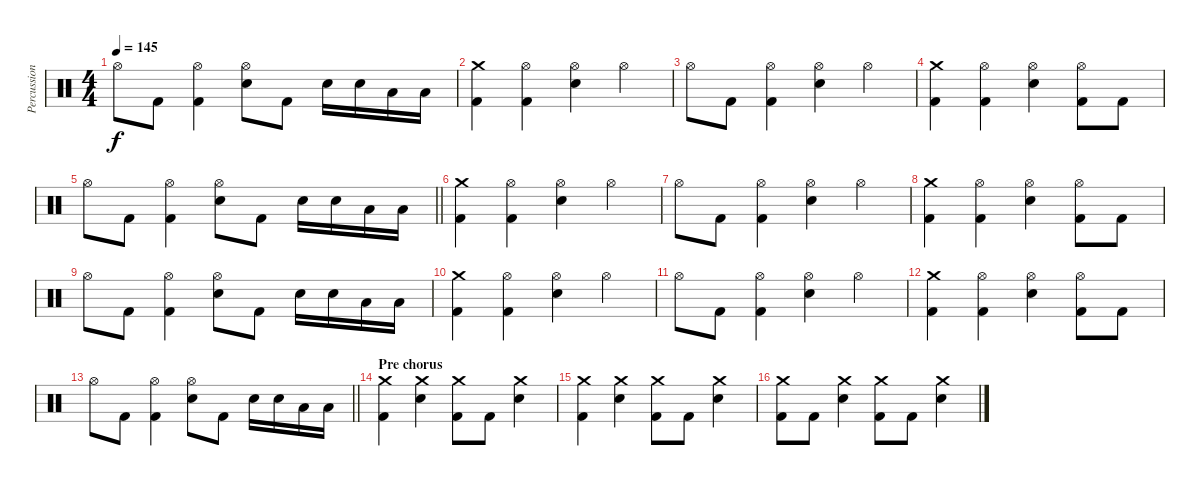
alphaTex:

\track ("Percussion" "Percussion") {instrument percussion}
\staff {score}
\articulation defaults
\ts (4 4)
\tempo 145
\clef neutral
\ks c "Hi-Hat (open)".8{dy f} "Kick (hit) 2".8
("Hi-Hat (open)" "Kick (hit) 2").4 ("Hi-Hat (open)" "Snare (hit) 2").8 "Kick (hit) 2".8 "Snare (hit) 2".16 "Snare (hit) 2".16 "Low Floor Tom (hit)".16 "Low Floor Tom (hit)".16 |
("Crash medium (hit)" "Kick (hit) 2").4 ("Hi-Hat (open)" "Kick (hit) 2").4 ("Hi-Hat (open)" "Snare (hit) 2").4 "Hi-Hat (open)".4 |
"Hi-Hat (open)".8 "Kick (hit) 2".8 ("Hi-Hat (open)" "Kick (hit) 2").4 ("Hi-Hat (open)" "Snare (hit) 2").4 "Hi-Hat (open)".4 |
("Crash medium (hit)" "Kick (hit) 2").4 ("Hi-Hat (open)" "Kick (hit) 2").4 ("Hi-Hat (open)" "Snare (hit) 2").4 ("Hi-Hat (open)" "Kick (hit) 2").8 "Kick (hit) 2".8 |
\barLineRight lightlight "Hi-Hat (open)".8 "Kick (hit) 2".8
("Hi-Hat (open)" "Kick (hit) 2").4 ("Hi-Hat (open)" "Snare (hit) 2").8 "Kick (hit) 2".8 "Snare (hit) 2".16 "Snare (hit) 2".16 "Low Floor Tom (hit)".16 "Low Floor Tom (hit)".16 |
("Crash medium (hit)" "Kick (hit) 2").4 ("Hi-Hat (open)" "Kick (hit) 2").4 ("Hi-Hat (open)" "Snare (hit) 2").4 "Hi-Hat (open)".4 |
"Hi-Hat (open)".8 "Kick (hit) 2".8 ("Hi-Hat (open)" "Kick (hit) 2").4 ("Hi-Hat (open)" "Snare (hit) 2").4 "Hi-Hat (open)".4 |
("Crash medium (hit)" "Kick (hit) 2").4 ("Hi-Hat (open)" "Kick (hit) 2").4 ("Hi-Hat (open)" "Snare (hit) 2").4 ("Hi-Hat (open)" "Kick (hit) 2").8 "Kick (hit) 2".8 |
"Hi-Hat (open)".8 "Kick (hit) 2".8 ("Hi-Hat (open)" "Kick (hit) 2").4 ("Hi-Hat (open)" "Snare (hit) 2").8 "Kick (hit) 2".8 "Snare (hit) 2".16 "Snare (hit) 2".16 "Low Floor Tom (hit)".16 "Low Floor Tom (hit)".16 |
("Crash medium (hit)" "Kick (hit) 2").4 ("Hi-Hat (open)" "Kick (hit) 2").4 ("Hi-Hat (open)" "Snare (hit) 2").4 "Hi-Hat (open)".4 |
"Hi-Hat (open)".8 "Kick (hit) 2".8 ("Hi-Hat (open)" "Kick (hit) 2").4 ("Hi-Hat (open)" "Snare (hit) 2").4 "Hi-Hat (open)".4 |
("Crash medium (hit)" "Kick (hit) 2").4 ("Hi-Hat (open)" "Kick (hit) 2").4 ("Hi-Hat (open)" "Snare (hit) 2").4 ("Hi-Hat (open)" "Kick (hit) 2").8 "Kick (hit) 2".8 |
\barLineRight lightlight "Hi-Hat (open)".8 "Kick (hit) 2".8
("Hi-Hat (open)" "Kick (hit) 2").4 ("Hi-Hat (open)" "Snare (hit) 2").8 "Kick (hit) 2".8 "Snare (hit) 2".16 "Snare (hit) 2".16 "Low Floor Tom (hit)".16 "Low Floor Tom (hit)".16 |
\section ("" "Pre chorus")
("Crash medium (hit)" "Kick (hit) 2").4 ("Crash medium (hit)" "Snare (hit) 2").4 ("Crash medium (hit)" "Kick (hit) 2").8 "Kick (hit) 2".8 ("Crash medium (hit)" "Snare (hit) 2").4 |
("Crash medium (hit)" "Kick (hit) 2").4 ("Crash medium (hit)" "Snare (hit) 2").4 ("Crash medium (hit)" "Kick (hit) 2").8 "Kick (hit) 2".8 ("Crash medium (hit)" "Snare (hit) 2").4 |
("Crash medium (hit)" "Kick (hit) 2").8 "Kick (hit) 2".8 ("Crash medium (hit)" "Snare (hit) 2").4 ("Crash medium (hit)" "Kick (hit) 2").8 "Kick (hit) 2".8 ("Crash medium (hit)" "Snare (hit) 2").4
